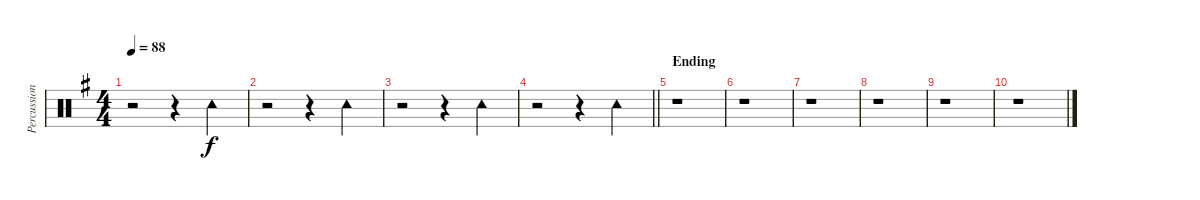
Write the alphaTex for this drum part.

\track ("Percussion" "Percussion") {instrument percussion}
\staff {score}
\articulation defaults
\ts (4 4)
\tempo 88
\clef neutral
\ks g
r.2{dy f} r.4 "Tambourine (hit)".4 |
r.2 r.4 "Tambourine (hit)".4 |
r.2 r.4 "Tambourine (hit)".4 |
\barLineRight lightlight
r.2 r.4 "Tambourine (hit)".4 |
\section ("" "Ending")
r.1 |
r.1 |
r.1 |
r.1 |
r.1 |
r.1
